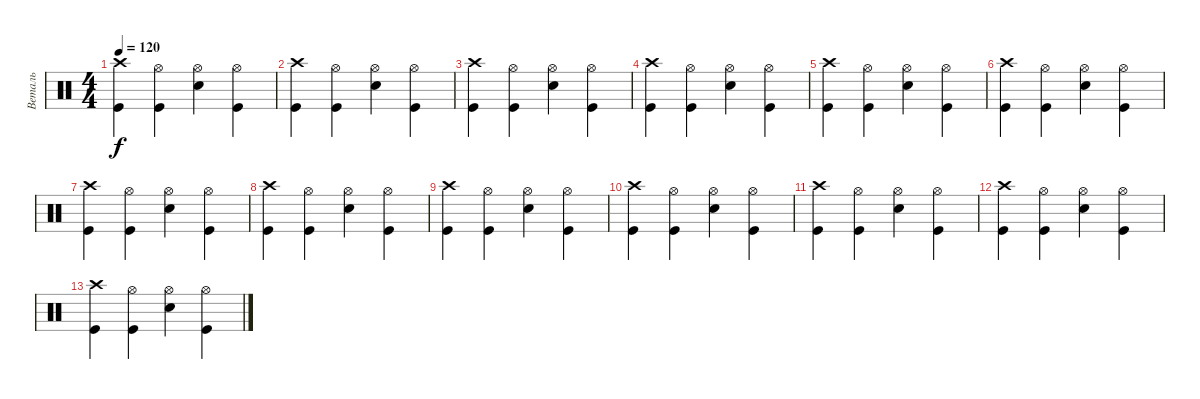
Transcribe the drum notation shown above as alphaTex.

\track ("Веталь" "Веталь") {instrument percussion}
\staff {score}
\articulation defaults
\ts (4 4)
\tempo 120
\clef neutral
\ks c
("Crash high (hit)" "Kick (hit)").4{dy f} ("Hi-Hat (open)" "Kick (hit)").4 ("Hi-Hat (open)" "Snare (hit) 2").4 ("Hi-Hat (open)" "Kick (hit)").4 |
("Crash high (hit)" "Kick (hit)").4 ("Hi-Hat (open)" "Kick (hit)").4 ("Hi-Hat (open)" "Snare (hit) 2").4 ("Hi-Hat (open)" "Kick (hit)").4 |
("Crash high (hit)" "Kick (hit)").4 ("Hi-Hat (open)" "Kick (hit)").4 ("Hi-Hat (open)" "Snare (hit) 2").4 ("Hi-Hat (open)" "Kick (hit)").4 |
("Crash high (hit)" "Kick (hit)").4 ("Hi-Hat (open)" "Kick (hit)").4 ("Hi-Hat (open)" "Snare (hit) 2").4 ("Hi-Hat (open)" "Kick (hit)").4 |
("Crash high (hit)" "Kick (hit)").4 ("Hi-Hat (open)" "Kick (hit)").4 ("Hi-Hat (open)" "Snare (hit) 2").4 ("Hi-Hat (open)" "Kick (hit)").4 |
("Crash high (hit)" "Kick (hit)").4 ("Hi-Hat (open)" "Kick (hit)").4 ("Hi-Hat (open)" "Snare (hit) 2").4 ("Hi-Hat (open)" "Kick (hit)").4 |
("Crash high (hit)" "Kick (hit)").4 ("Hi-Hat (open)" "Kick (hit)").4 ("Hi-Hat (open)" "Snare (hit) 2").4 ("Hi-Hat (open)" "Kick (hit)").4 |
("Crash high (hit)" "Kick (hit)").4 ("Hi-Hat (open)" "Kick (hit)").4 ("Hi-Hat (open)" "Snare (hit) 2").4 ("Hi-Hat (open)" "Kick (hit)").4 |
("Crash high (hit)" "Kick (hit)").4 ("Hi-Hat (open)" "Kick (hit)").4 ("Hi-Hat (open)" "Snare (hit) 2").4 ("Hi-Hat (open)" "Kick (hit)").4 |
("Crash high (hit)" "Kick (hit)").4 ("Hi-Hat (open)" "Kick (hit)").4 ("Hi-Hat (open)" "Snare (hit) 2").4 ("Hi-Hat (open)" "Kick (hit)").4 |
("Crash high (hit)" "Kick (hit)").4 ("Hi-Hat (open)" "Kick (hit)").4 ("Hi-Hat (open)" "Snare (hit) 2").4 ("Hi-Hat (open)" "Kick (hit)").4 |
("Crash high (hit)" "Kick (hit)").4 ("Hi-Hat (open)" "Kick (hit)").4 ("Hi-Hat (open)" "Snare (hit) 2").4 ("Hi-Hat (open)" "Kick (hit)").4 |
("Crash high (hit)" "Kick (hit)").4 ("Hi-Hat (open)" "Kick (hit)").4 ("Hi-Hat (open)" "Snare (hit) 2").4 ("Hi-Hat (open)" "Kick (hit)").4
